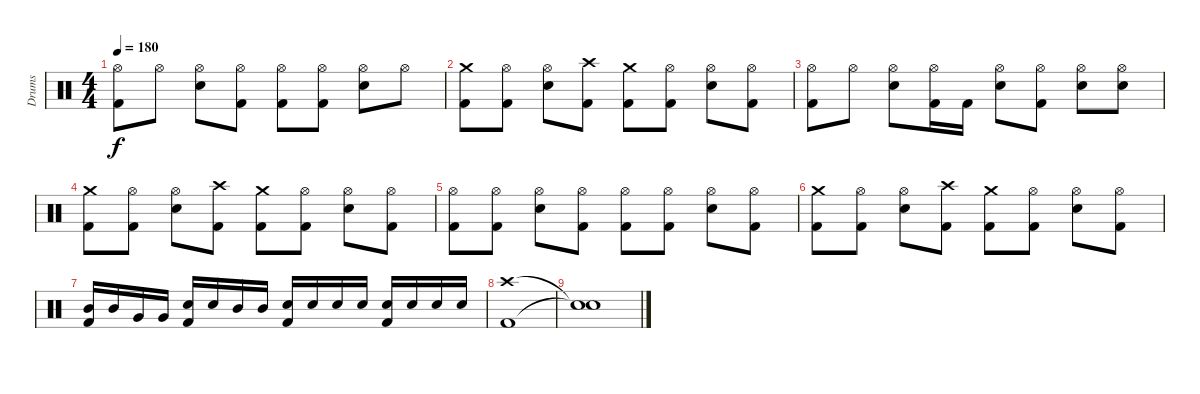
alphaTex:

\track ("Drums" "Drums") {instrument percussion}
\staff {score}
\articulation defaults
\ts (4 4)
\tempo 180
\clef neutral
\ks c
("Hi-Hat (open)" "Kick (hit) 2").8{dy f} "Hi-Hat (open)".8 ("Hi-Hat (open)" "Electric Snare (hit)").8 ("Hi-Hat (open)" "Kick (hit) 2").8 ("Hi-Hat (open)" "Kick (hit) 2").8 ("Hi-Hat (open)" "Kick (hit) 2").8 ("Hi-Hat (open)" "Electric Snare (hit)").8 "Hi-Hat (open)".8 |
("Crash medium (hit)" "Kick (hit) 2").8 ("Hi-Hat (open)" "Kick (hit) 2").8 ("Hi-Hat (open)" "Electric Snare (hit)").8 ("Crash high (hit)" "Kick (hit) 2").8 ("Crash medium (hit)" "Kick (hit) 2").8 ("Hi-Hat (open)" "Kick (hit) 2").8 ("Hi-Hat (open)" "Electric Snare (hit)").8 ("Hi-Hat (open)" "Kick (hit) 2").8 |
("Hi-Hat (open)" "Kick (hit) 2").8 "Hi-Hat (open)".8 ("Hi-Hat (open)" "Electric Snare (hit)").8 ("Hi-Hat (open)" "Kick (hit) 2").16 "Kick (hit) 2".16 ("Hi-Hat (open)" "Electric Snare (hit)").8 ("Hi-Hat (open)" "Kick (hit) 2").8 ("Hi-Hat (open)" "Electric Snare (hit)").8 ("Hi-Hat (open)" "Electric Snare (hit)").8 |
("Crash medium (hit)" "Kick (hit) 2").8 ("Hi-Hat (open)" "Kick (hit) 2").8 ("Hi-Hat (open)" "Electric Snare (hit)").8 ("Crash high (hit)" "Kick (hit) 2").8 ("Crash medium (hit)" "Kick (hit) 2").8 ("Hi-Hat (open)" "Kick (hit) 2").8 ("Hi-Hat (open)" "Electric Snare (hit)").8 ("Hi-Hat (open)" "Kick (hit) 2").8 |
("Hi-Hat (open)" "Kick (hit) 2").8 ("Hi-Hat (open)" "Kick (hit) 2").8 ("Hi-Hat (open)" "Electric Snare (hit)").8 ("Hi-Hat (open)" "Kick (hit) 2").8 ("Hi-Hat (open)" "Kick (hit) 2").8 ("Hi-Hat (open)" "Kick (hit) 2").8 ("Hi-Hat (open)" "Electric Snare (hit)").8 ("Hi-Hat (open)" "Kick (hit) 2").8 |
("Crash medium (hit)" "Kick (hit) 2").8 ("Hi-Hat (open)" "Kick (hit) 2").8 ("Hi-Hat (open)" "Electric Snare (hit)").8 ("Crash high (hit)" "Kick (hit) 2").8 ("Crash medium (hit)" "Kick (hit) 2").8 ("Hi-Hat (open)" "Kick (hit) 2").8 ("Hi-Hat (open)" "Electric Snare (hit)").8 ("Hi-Hat (open)" "Kick (hit) 2").8 |
("Mid Tom (hit)" "Kick (hit) 2").16 "Mid Tom (hit)".16 "Very Low Tom (hit)".16 "Very Low Tom (hit)".16 ("Electric Snare (hit)" "Kick (hit) 2").16 "Electric Snare (hit)".16 "Mid Tom (hit)".16 "Mid Tom (hit)".16 ("Electric Snare (hit)" "Kick (hit) 2").16 "Electric Snare (hit)".16 "Electric Snare (hit)".16 "Electric Snare (hit)".16 ("Electric Snare (hit)" "Kick (hit) 2").16 "Electric Snare (hit)".16 "Electric Snare (hit)".16 "Electric Snare (hit)".16 |
("Crash high (hit)" "Kick (hit) 2").1 |
("Snare (hit)"{t} "Snare (hit)"{t}).1
